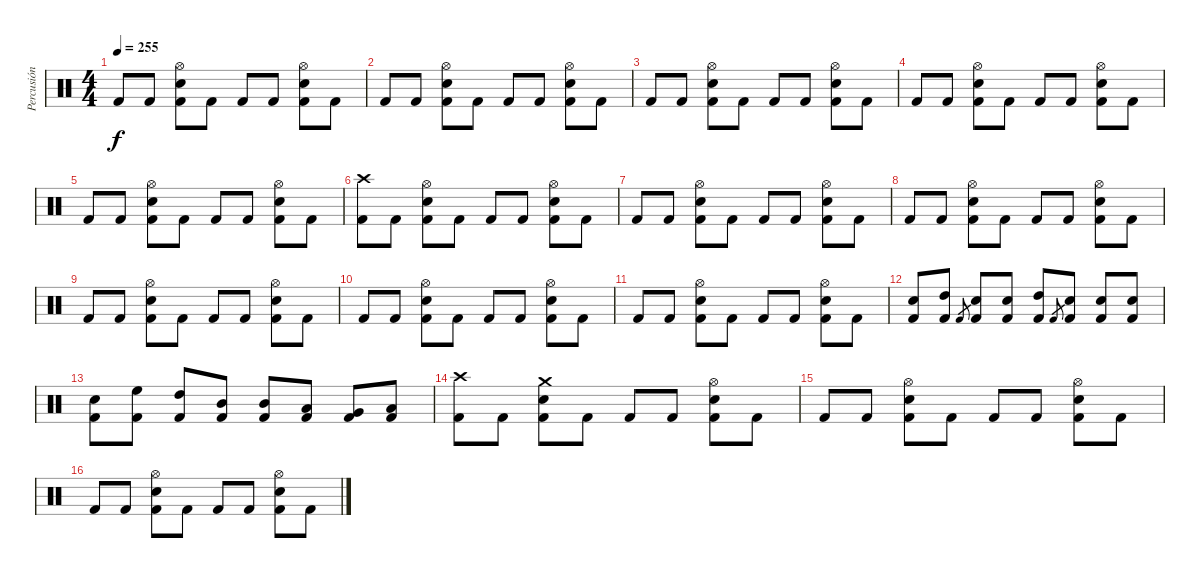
\track ("Percusión" "Percusión") {instrument percussion}
\staff {score}
\articulation defaults
\ts (4 4)
\tempo 255
\clef neutral
\ks c "Kick (hit) 2".8{dy f} "Kick (hit) 2".8
("Kick (hit) 2" "Electric Snare (hit)" "Hi-Hat (open)").8 "Kick (hit) 2".8 "Kick (hit) 2".8 "Kick (hit) 2".8 ("Kick (hit) 2" "Electric Snare (hit)" "Hi-Hat (open)").8 "Kick (hit) 2".8 |
"Kick (hit) 2".8 "Kick (hit) 2".8 ("Kick (hit) 2" "Electric Snare (hit)" "Hi-Hat (open)").8 "Kick (hit) 2".8 "Kick (hit) 2".8 "Kick (hit) 2".8 ("Kick (hit) 2" "Electric Snare (hit)" "Hi-Hat (open)").8 "Kick (hit) 2".8 |
"Kick (hit) 2".8 "Kick (hit) 2".8 ("Kick (hit) 2" "Electric Snare (hit)" "Hi-Hat (open)").8 "Kick (hit) 2".8 "Kick (hit) 2".8 "Kick (hit) 2".8 ("Kick (hit) 2" "Electric Snare (hit)" "Hi-Hat (open)").8 "Kick (hit) 2".8 |
"Kick (hit) 2".8 "Kick (hit) 2".8 ("Kick (hit) 2" "Electric Snare (hit)" "Hi-Hat (open)").8 "Kick (hit) 2".8 "Kick (hit) 2".8 "Kick (hit) 2".8 ("Kick (hit) 2" "Electric Snare (hit)" "Hi-Hat (open)").8 "Kick (hit) 2".8 |
"Kick (hit) 2".8 "Kick (hit) 2".8 ("Kick (hit) 2" "Electric Snare (hit)" "Hi-Hat (open)").8 "Kick (hit) 2".8 "Kick (hit) 2".8 "Kick (hit) 2".8 ("Kick (hit) 2" "Electric Snare (hit)" "Hi-Hat (open)").8 "Kick (hit) 2".8 |
("Kick (hit) 2" "Crash high (hit)").8 "Kick (hit) 2".8 ("Kick (hit) 2" "Electric Snare (hit)" "Hi-Hat (open)").8 "Kick (hit) 2".8 "Kick (hit) 2".8 "Kick (hit) 2".8 ("Kick (hit) 2" "Electric Snare (hit)" "Hi-Hat (open)").8 "Kick (hit) 2".8 |
"Kick (hit) 2".8 "Kick (hit) 2".8 ("Kick (hit) 2" "Electric Snare (hit)" "Hi-Hat (open)").8 "Kick (hit) 2".8 "Kick (hit) 2".8 "Kick (hit) 2".8 ("Kick (hit) 2" "Electric Snare (hit)" "Hi-Hat (open)").8 "Kick (hit) 2".8 |
"Kick (hit) 2".8 "Kick (hit) 2".8 ("Kick (hit) 2" "Electric Snare (hit)" "Hi-Hat (open)").8 "Kick (hit) 2".8 "Kick (hit) 2".8 "Kick (hit) 2".8 ("Kick (hit) 2" "Electric Snare (hit)" "Hi-Hat (open)").8 "Kick (hit) 2".8 |
"Kick (hit) 2".8 "Kick (hit) 2".8 ("Kick (hit) 2" "Electric Snare (hit)" "Hi-Hat (open)").8 "Kick (hit) 2".8 "Kick (hit) 2".8 "Kick (hit) 2".8 ("Kick (hit) 2" "Electric Snare (hit)" "Hi-Hat (open)").8 "Kick (hit) 2".8 |
"Kick (hit) 2".8 "Kick (hit) 2".8 ("Kick (hit) 2" "Electric Snare (hit)" "Hi-Hat (open)").8 "Kick (hit) 2".8 "Kick (hit) 2".8 "Kick (hit) 2".8 ("Kick (hit) 2" "Electric Snare (hit)" "Hi-Hat (open)").8 "Kick (hit) 2".8 |
"Kick (hit) 2".8 "Kick (hit) 2".8 ("Kick (hit) 2" "Electric Snare (hit)" "Hi-Hat (open)").8 "Kick (hit) 2".8 "Kick (hit) 2".8 "Kick (hit) 2".8 ("Kick (hit) 2" "Electric Snare (hit)" "Hi-Hat (open)").8 "Kick (hit) 2".8 |
("Kick (hit) 2" "Electric Snare (hit)").8 ("Kick (hit) 2" "High Tom (hit)").8 "Kick (hit) 2".8{gr} ("Kick (hit) 2" "Electric Snare (hit)").8 ("Kick (hit) 2" "Electric Snare (hit)").8 ("Kick (hit) 2" "High Tom (hit)").8 "Kick (hit) 2".8{gr} ("Kick (hit) 2" "Electric Snare (hit)").8 ("Kick (hit) 2" "Electric Snare (hit)").8 ("Kick (hit) 2" "Electric Snare (hit)").8 |
("Kick (hit) 2" "Electric Snare (hit)").8 ("Kick (hit) 2" "High Floor Tom (hit)").8 ("Kick (hit) 2" "High Tom (hit)").8 ("Kick (hit) 2" "Mid Tom (hit)").8 ("Kick (hit) 2" "Mid Tom (hit)").8 ("Kick (hit) 2" "Low Tom (hit)").8 ("Kick (hit) 2" "Very Low Tom (hit)").8 ("Kick (hit) 2" "Low Floor Tom (hit)").8 |
("Kick (hit) 2" "Crash high (hit)").8 "Kick (hit) 2".8 ("Kick (hit) 2" "Electric Snare (hit)" "Crash medium (hit)").8 "Kick (hit) 2".8 "Kick (hit) 2".8 "Kick (hit) 2".8 ("Kick (hit) 2" "Electric Snare (hit)" "Hi-Hat (open)").8 "Kick (hit) 2".8 |
"Kick (hit) 2".8 "Kick (hit) 2".8 ("Kick (hit) 2" "Electric Snare (hit)" "Hi-Hat (open)").8 "Kick (hit) 2".8 "Kick (hit) 2".8 "Kick (hit) 2".8 ("Kick (hit) 2" "Electric Snare (hit)" "Hi-Hat (open)").8 "Kick (hit) 2".8 |
"Kick (hit) 2".8 "Kick (hit) 2".8 ("Kick (hit) 2" "Electric Snare (hit)" "Hi-Hat (open)").8 "Kick (hit) 2".8 "Kick (hit) 2".8 "Kick (hit) 2".8 ("Kick (hit) 2" "Electric Snare (hit)" "Hi-Hat (open)").8 "Kick (hit) 2".8
